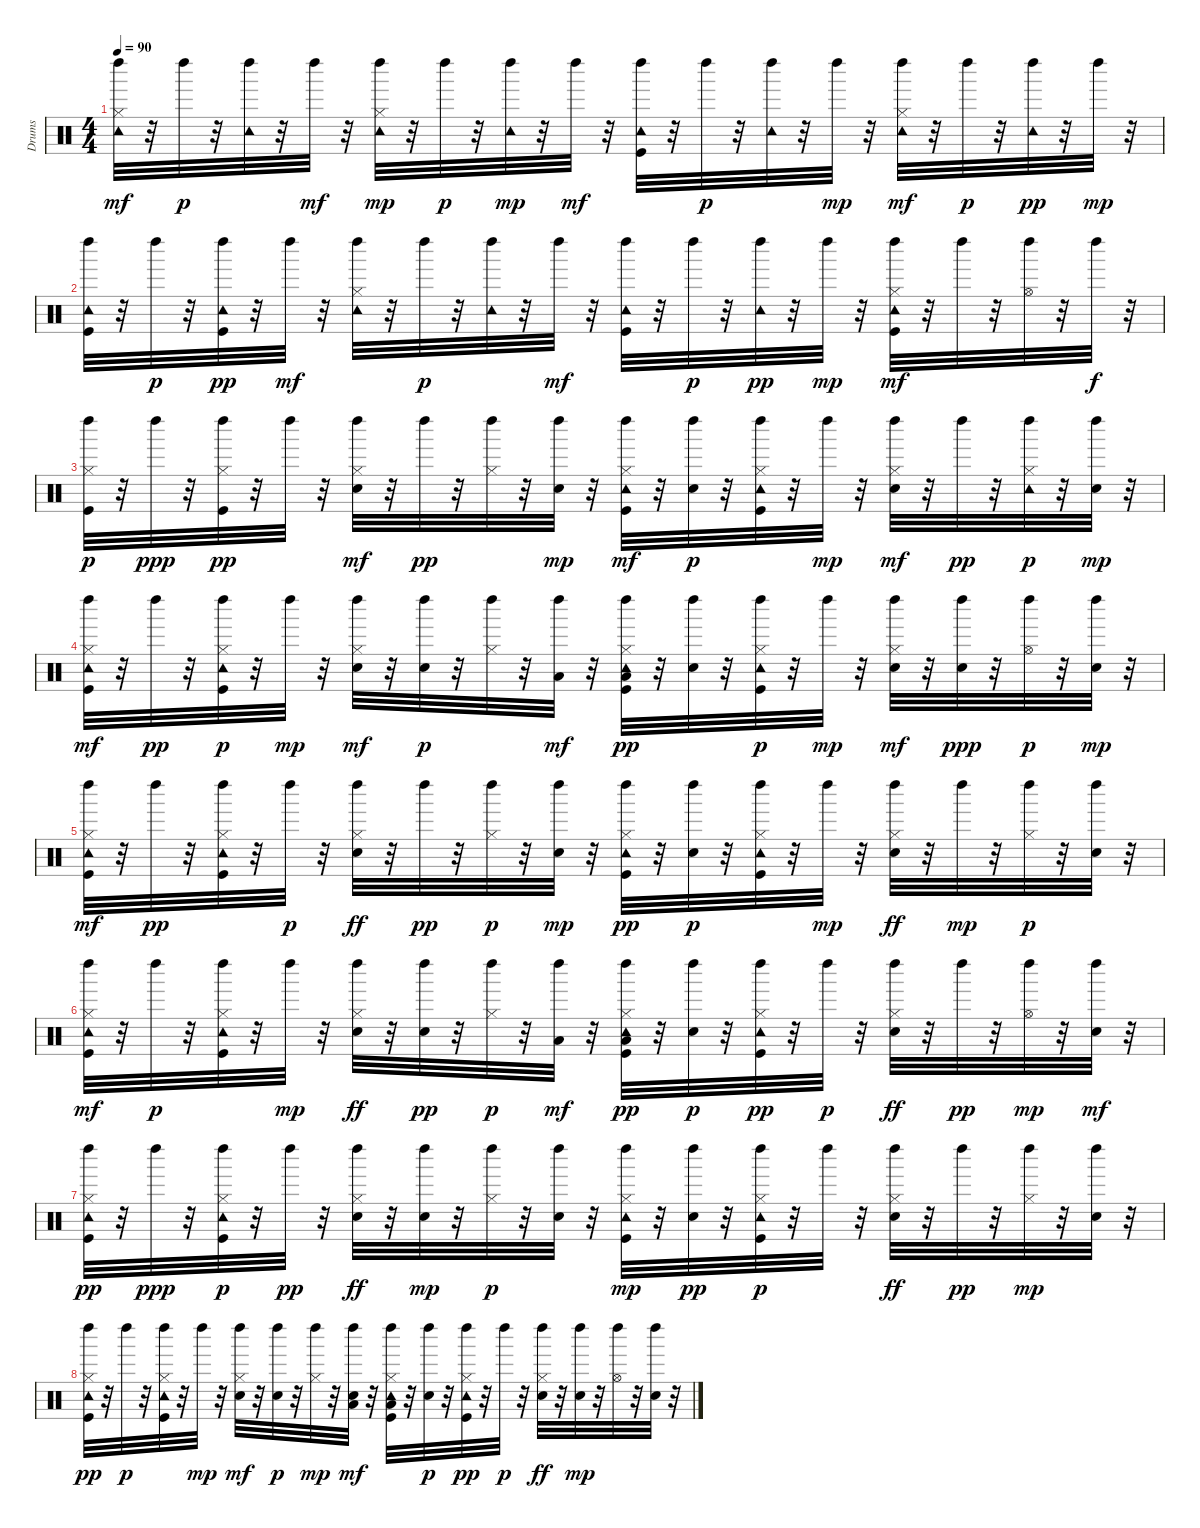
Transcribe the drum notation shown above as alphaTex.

\track ("Drums" "Drums") {instrument percussion}
\staff {score}
\articulation defaults
\ts (4 4)
\tempo 90
\clef neutral
\ks c
("Hi-Hat (closed)" "Tambourine (hit)" "Left Maraca (hit)").32{dy mf} r.32 "Left Maraca (hit)".32{dy p} r.32 ("Tambourine (hit)" "Left Maraca (hit)").32 r.32 "Left Maraca (hit)".32{dy mf} r.32 ("Hi-Hat (closed)" "Tambourine (hit)" "Left Maraca (hit)").32{dy mp} r.32 "Left Maraca (hit)".32{dy p} r.32 ("Tambourine (hit)" "Left Maraca (hit)").32{dy mp} r.32 "Left Maraca (hit)".32{dy mf} r.32 ("Kick (hit)" "Tambourine (hit)" "Left Maraca (hit)").32 r.32 "Left Maraca (hit)".32{dy p} r.32 ("Tambourine (hit)" "Left Maraca (hit)").32 r.32 "Left Maraca (hit)".32{dy mp} r.32 ("Hi-Hat (closed)" "Tambourine (hit)" "Left Maraca (hit)").32{dy mf} r.32 "Left Maraca (hit)".32{dy p} r.32 ("Tambourine (hit)" "Left Maraca (hit)").32{dy pp} r.32 "Left Maraca (hit)".32{dy mp} r.32 |
("Kick (hit)" "Tambourine (hit)" "Left Maraca (hit)").32 r.32 "Left Maraca (hit)".32{dy p} r.32 ("Kick (hit)" "Tambourine (hit)" "Left Maraca (hit)").32{dy pp} r.32 "Left Maraca (hit)".32{dy mf} r.32 ("Hi-Hat (closed)" "Tambourine (hit)" "Left Maraca (hit)").32 r.32 "Left Maraca (hit)".32{dy p} r.32 ("Tambourine (hit)" "Left Maraca (hit)").32 r.32 "Left Maraca (hit)".32{dy mf} r.32 ("Kick (hit)" "Tambourine (hit)" "Left Maraca (hit)").32 r.32 "Left Maraca (hit)".32{dy p} r.32 ("Tambourine (hit)" "Left Maraca (hit)").32{dy pp} r.32 "Left Maraca (hit)".32{dy mp} r.32 ("Hi-Hat (closed)" "Kick (hit)" "Tambourine (hit)" "Left Maraca (hit)").32{dy mf} r.32 "Left Maraca (hit)".32 r.32 ("Hi-Hat (open)" "Left Maraca (hit)").32 r.32 "Left Maraca (hit)".32{dy f} r.32 |
("Hi-Hat (closed)" "Kick (hit)" "Left Maraca (hit)").32{dy p} r.32 "Left Maraca (hit)".32{dy ppp} r.32 ("Hi-Hat (closed)" "Kick (hit)" "Left Maraca (hit)").32{dy pp} r.32 "Left Maraca (hit)".32 r.32 ("Hi-Hat (closed)" "Electric Snare (hit)" "Left Maraca (hit)").32{dy mf} r.32 "Left Maraca (hit)".32{dy pp} r.32 ("Hi-Hat (closed)" "Left Maraca (hit)").32 r.32 ("Electric Snare (hit)" "Left Maraca (hit)").32{dy mp} r.32 ("Hi-Hat (closed)" "Kick (hit)" "Tambourine (hit)" "Left Maraca (hit)").32{dy mf} r.32 ("Electric Snare (hit)" "Left Maraca (hit)").32{dy p} r.32 ("Hi-Hat (closed)" "Kick (hit)" "Tambourine (hit)" "Left Maraca (hit)").32 r.32 "Left Maraca (hit)".32{dy mp} r.32 ("Hi-Hat (closed)" "Electric Snare (hit)" "Left Maraca (hit)").32{dy mf} r.32 "Left Maraca (hit)".32{dy pp} r.32 ("Hi-Hat (closed)" "Tambourine (hit)" "Left Maraca (hit)").32{dy p} r.32 ("Electric Snare (hit)" "Left Maraca (hit)").32{dy mp} r.32 |
("Hi-Hat (closed)" "Kick (hit)" "Tambourine (hit)" "Left Maraca (hit)").32{dy mf} r.32 "Left Maraca (hit)".32{dy pp} r.32 ("Hi-Hat (closed)" "Kick (hit)" "Tambourine (hit)" "Left Maraca (hit)").32{dy p} r.32 "Left Maraca (hit)".32{dy mp} r.32 ("Hi-Hat (closed)" "Electric Snare (hit)" "Left Maraca (hit)").32{dy mf} r.32 ("Electric Snare (hit)" "Left Maraca (hit)").32{dy p} r.32 ("Hi-Hat (closed)" "Left Maraca (hit)").32 r.32 ("Left Maraca (hit)" "Low Tom (hit)").32{dy mf} r.32 ("Hi-Hat (closed)" "Kick (hit)" "Low Floor Tom (hit)" "Tambourine (hit)" "Left Maraca (hit)").32{dy pp} r.32 ("Electric Snare (hit)" "Left Maraca (hit)").32 r.32 ("Hi-Hat (closed)" "Kick (hit)" "Tambourine (hit)" "Left Maraca (hit)").32{dy p} r.32 "Left Maraca (hit)".32{dy mp} r.32 ("Hi-Hat (closed)" "Electric Snare (hit)" "Left Maraca (hit)").32{dy mf} r.32 ("Electric Snare (hit)" "Left Maraca (hit)").32{dy ppp} r.32 ("Hi-Hat (open)" "Left Maraca (hit)").32{dy p} r.32 ("Electric Snare (hit)" "Left Maraca (hit)").32{dy mp} r.32 |
("Hi-Hat (closed)" "Kick (hit)" "Tambourine (hit)" "Left Maraca (hit)").32{dy mf} r.32 "Left Maraca (hit)".32{dy pp} r.32 ("Hi-Hat (closed)" "Kick (hit)" "Tambourine (hit)" "Left Maraca (hit)").32 r.32 "Left Maraca (hit)".32{dy p} r.32 ("Hi-Hat (closed)" "Electric Snare (hit)" "Left Maraca (hit)").32{dy ff} r.32 "Left Maraca (hit)".32{dy pp} r.32 ("Hi-Hat (closed)" "Left Maraca (hit)").32{dy p} r.32 ("Electric Snare (hit)" "Left Maraca (hit)").32{dy mp} r.32 ("Hi-Hat (closed)" "Kick (hit)" "Tambourine (hit)" "Left Maraca (hit)").32{dy pp} r.32 ("Electric Snare (hit)" "Left Maraca (hit)").32{dy p} r.32 ("Hi-Hat (closed)" "Kick (hit)" "Tambourine (hit)" "Left Maraca (hit)").32 r.32 "Left Maraca (hit)".32{dy mp} r.32 ("Hi-Hat (closed)" "Electric Snare (hit)" "Left Maraca (hit)").32{dy ff} r.32 "Left Maraca (hit)".32{dy mp} r.32 ("Hi-Hat (closed)" "Left Maraca (hit)").32{dy p} r.32 ("Electric Snare (hit)" "Left Maraca (hit)").32 r.32 |
("Hi-Hat (closed)" "Kick (hit)" "Tambourine (hit)" "Left Maraca (hit)").32{dy mf} r.32 "Left Maraca (hit)".32{dy p} r.32 ("Hi-Hat (closed)" "Kick (hit)" "Tambourine (hit)" "Left Maraca (hit)").32 r.32 "Left Maraca (hit)".32{dy mp} r.32 ("Hi-Hat (closed)" "Electric Snare (hit)" "Left Maraca (hit)").32{dy ff} r.32 ("Electric Snare (hit)" "Left Maraca (hit)").32{dy pp} r.32 ("Hi-Hat (closed)" "Left Maraca (hit)").32{dy p} r.32 ("Left Maraca (hit)" "Low Tom (hit)").32{dy mf} r.32 ("Hi-Hat (closed)" "Kick (hit)" "Low Floor Tom (hit)" "Tambourine (hit)" "Left Maraca (hit)").32{dy pp} r.32 ("Electric Snare (hit)" "Left Maraca (hit)").32{dy p} r.32 ("Hi-Hat (closed)" "Kick (hit)" "Tambourine (hit)" "Left Maraca (hit)").32{dy pp} r.32 "Left Maraca (hit)".32{dy p} r.32 ("Hi-Hat (closed)" "Electric Snare (hit)" "Left Maraca (hit)").32{dy ff} r.32 "Left Maraca (hit)".32{dy pp} r.32 ("Hi-Hat (open)" "Left Maraca (hit)").32{dy mp} r.32 ("Electric Snare (hit)" "Left Maraca (hit)").32{dy mf} r.32 |
("Left Maraca (hit)" "Kick (hit)" "Hi-Hat (closed)" "Tambourine (hit)").32{dy pp} r.32 "Left Maraca (hit)".32{dy ppp} r.32 ("Left Maraca (hit)" "Hi-Hat (closed)" "Kick (hit)" "Tambourine (hit)").32{dy p} r.32 "Left Maraca (hit)".32{dy pp} r.32 ("Left Maraca (hit)" "Hi-Hat (closed)" "Electric Snare (hit)").32{dy ff} r.32 ("Left Maraca (hit)" "Electric Snare (hit)").32{dy mp} r.32 ("Hi-Hat (closed)" "Left Maraca (hit)").32{dy p} r.32 ("Electric Snare (hit)" "Left Maraca (hit)").32 r.32 ("Hi-Hat (closed)" "Kick (hit)" "Tambourine (hit)" "Left Maraca (hit)").32{dy mp} r.32 ("Electric Snare (hit)" "Left Maraca (hit)").32{dy pp} r.32 ("Left Maraca (hit)" "Hi-Hat (closed)" "Kick (hit)" "Tambourine (hit)").32{dy p} r.32 "Left Maraca (hit)".32 r.32 ("Electric Snare (hit)" "Left Maraca (hit)" "Hi-Hat (closed)").32{dy ff} r.32 "Left Maraca (hit)".32{dy pp} r.32 ("Hi-Hat (closed)" "Left Maraca (hit)").32{dy mp} r.32 ("Electric Snare (hit)" "Left Maraca (hit)").32 r.32 |
("Kick (hit)" "Left Maraca (hit)" "Hi-Hat (closed)" "Tambourine (hit)").32{dy pp} r.32 "Left Maraca (hit)".32{dy p} r.32 ("Hi-Hat (closed)" "Left Maraca (hit)" "Kick (hit)" "Tambourine (hit)").32 r.32 "Left Maraca (hit)".32{dy mp} r.32 ("Hi-Hat (closed)" "Electric Snare (hit)" "Left Maraca (hit)").32{dy mf} r.32 ("Electric Snare (hit)" "Left Maraca (hit)").32{dy p} r.32 ("Hi-Hat (closed)" "Left Maraca (hit)").32{dy mp} r.32 ("Electric Snare (hit)" "Left Maraca (hit)" "Low Tom (hit)").32{dy mf} r.32 ("Hi-Hat (closed)" "Tambourine (hit)" "Kick (hit)" "Low Floor Tom (hit)" "Left Maraca (hit)").32 r.32 ("Electric Snare (hit)" "Left Maraca (hit)").32{dy p} r.32 ("Hi-Hat (closed)" "Tambourine (hit)" "Left Maraca (hit)" "Kick (hit)").32{dy pp} r.32 "Left Maraca (hit)".32{dy p} r.32 ("Left Maraca (hit)" "Hi-Hat (closed)" "Electric Snare (hit)").32{dy ff} r.32 ("Left Maraca (hit)" "Electric Snare (hit)").32{dy mp} r.32 ("Hi-Hat (open)" "Left Maraca (hit)").32 r.32 ("Left Maraca (hit)" "Electric Snare (hit)").32 r.32
